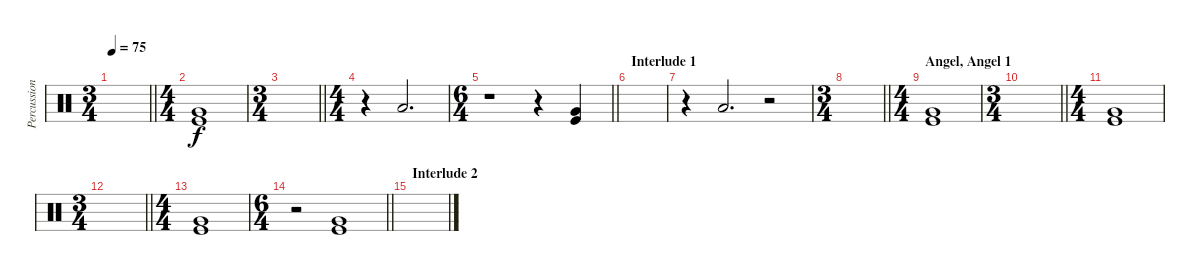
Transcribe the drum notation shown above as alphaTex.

\track ("Percussion" "Percussion") {instrument percussion}
\staff {score}
\articulation defaults
\ts (3 4)
\tempo 75
\clef neutral
\barLineRight lightlight
\ks c
|
\ts (4 4)
("Very Low Tom (hit)" "Kick (hit)").1 |
\ts (3 4)
\barLineRight lightlight
|
\ts (4 4)
r.4 "Low Floor Tom (hit)".2{d} |
\ts (6 4)
\barLineRight lightlight
r.1 r.4 ("Very Low Tom (hit)" "Kick (hit)").4 |
\section ("" "Interlude 1")
|
r.4 "Low Floor Tom (hit)".2{d} r.2 |
\ts (3 4)
\barLineRight lightlight
|
\ts (4 4)
\section ("" "Angel, Angel 1")
("Very Low Tom (hit)" "Kick (hit)").1 |
\ts (3 4)
\barLineRight lightlight
|
\ts (4 4)
("Very Low Tom (hit)" "Kick (hit)").1 |
\ts (3 4)
\barLineRight lightlight
|
\ts (4 4)
("Very Low Tom (hit)" "Kick (hit)").1 |
\ts (6 4)
\barLineRight lightlight
r.2 ("Very Low Tom (hit)" "Kick (hit)").1 |
\section ("" "Interlude 2")
